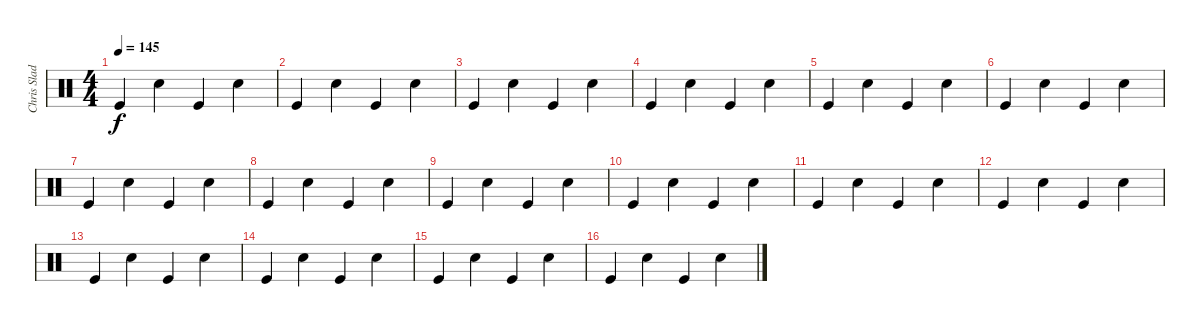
\track ("Chris Slade" "Chris Slad") {instrument percussion}
\staff {score}
\articulation defaults
\ts (4 4)
\tempo 145
\clef neutral
\ks c "Kick (hit)".4{dy f} "Snare (hit) 2".4 "Kick (hit)".4 "Snare (hit) 2".4
|
"Kick (hit)".4 "Snare (hit) 2".4 "Kick (hit)".4 "Snare (hit) 2".4 |
"Kick (hit)".4 "Snare (hit) 2".4 "Kick (hit)".4 "Snare (hit) 2".4 |
"Kick (hit)".4 "Snare (hit) 2".4 "Kick (hit)".4 "Snare (hit) 2".4 |
"Kick (hit)".4 "Snare (hit) 2".4 "Kick (hit)".4 "Snare (hit) 2".4 |
"Kick (hit)".4 "Snare (hit) 2".4 "Kick (hit)".4 "Snare (hit) 2".4 |
"Kick (hit)".4 "Snare (hit) 2".4 "Kick (hit)".4 "Snare (hit) 2".4 |
"Kick (hit)".4 "Snare (hit) 2".4 "Kick (hit)".4 "Snare (hit) 2".4 |
"Kick (hit)".4 "Snare (hit) 2".4 "Kick (hit)".4 "Snare (hit) 2".4 |
"Kick (hit)".4 "Snare (hit) 2".4 "Kick (hit)".4 "Snare (hit) 2".4 |
"Kick (hit)".4 "Snare (hit) 2".4 "Kick (hit)".4 "Snare (hit) 2".4 |
"Kick (hit)".4 "Snare (hit) 2".4 "Kick (hit)".4 "Snare (hit) 2".4 |
"Kick (hit)".4 "Snare (hit) 2".4 "Kick (hit)".4 "Snare (hit) 2".4 |
"Kick (hit)".4 "Snare (hit) 2".4 "Kick (hit)".4 "Snare (hit) 2".4 |
"Kick (hit)".4 "Snare (hit) 2".4 "Kick (hit)".4 "Snare (hit) 2".4 |
"Kick (hit)".4 "Snare (hit) 2".4 "Kick (hit)".4 "Snare (hit) 2".4
